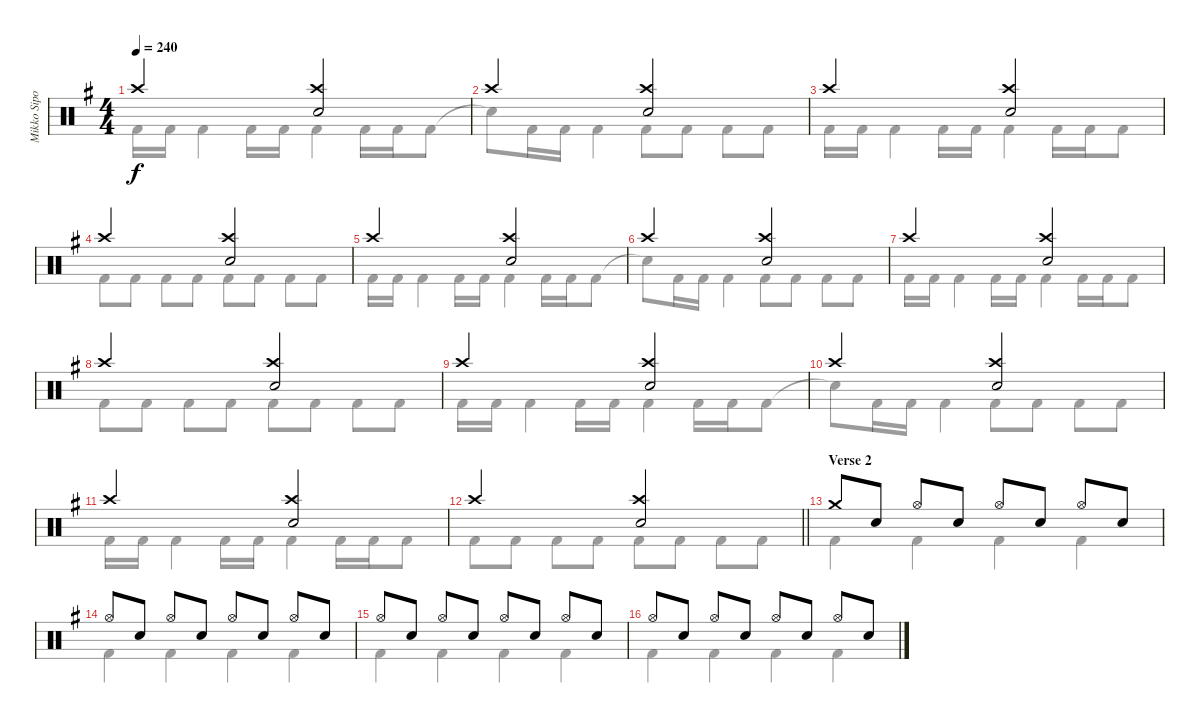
\track ("Mikko Sipola (drums)" "Mikko Sipo") {instrument percussion}
\staff {score}
\articulation defaults
\voice
\ts (4 4)
\tempo 240
\clef neutral
\ks eminor "Crash high (hit)".2{dy f}
("Electric Snare (hit)" "Crash high (hit)").2 |
"Crash high (hit)".2 ("Electric Snare (hit)" "Crash high (hit)").2 |
"Crash high (hit)".2 ("Electric Snare (hit)" "Crash high (hit)").2 |
"Crash high (hit)".2 ("Electric Snare (hit)" "Crash high (hit)").2 |
"Crash high (hit)".2 ("Electric Snare (hit)" "Crash high (hit)").2 |
"Crash high (hit)".2 ("Electric Snare (hit)" "Crash high (hit)").2 |
"Crash high (hit)".2 ("Electric Snare (hit)" "Crash high (hit)").2 |
"Crash high (hit)".2 ("Electric Snare (hit)" "Crash high (hit)").2 |
"Crash high (hit)".2 ("Electric Snare (hit)" "Crash high (hit)").2 |
"Crash high (hit)".2 ("Electric Snare (hit)" "Crash high (hit)").2 |
"Crash high (hit)".2 ("Electric Snare (hit)" "Crash high (hit)").2 |
\barLineRight lightlight "Crash high (hit)".2
("Electric Snare (hit)" "Crash high (hit)").2 |
\section ("" "Verse 2")
"Crash medium (hit)".8 "Electric Snare (hit)".8 "Hi-Hat (open)".8 "Electric Snare (hit)".8 "Hi-Hat (open)".8 "Electric Snare (hit)".8 "Hi-Hat (open)".8 "Electric Snare (hit)".8 |
"Hi-Hat (open)".8 "Electric Snare (hit)".8 "Hi-Hat (open)".8 "Electric Snare (hit)".8 "Hi-Hat (open)".8 "Electric Snare (hit)".8 "Hi-Hat (open)".8 "Electric Snare (hit)".8 |
"Hi-Hat (open)".8 "Electric Snare (hit)".8 "Hi-Hat (open)".8 "Electric Snare (hit)".8 "Hi-Hat (open)".8 "Electric Snare (hit)".8 "Hi-Hat (open)".8 "Electric Snare (hit)".8 |
"Hi-Hat (open)".8 "Electric Snare (hit)".8 "Hi-Hat (open)".8 "Electric Snare (hit)".8 "Hi-Hat (open)".8 "Electric Snare (hit)".8 "Hi-Hat (open)".8 "Electric Snare (hit)".8
\voice
\clef neutral
\ottava regular
\simile none
\ks eminor "Kick (hit) 2".16{dy f} "Kick (hit) 2".16 "Kick (hit) 2".4 "Kick (hit) 2".16 "Kick (hit) 2".16 "Kick (hit) 2".4 "Kick (hit) 2".16 "Kick (hit) 2".16 "Kick (hit) 2".8
|
"Snare (hit)"{t}.8 "Kick (hit) 2".16 "Kick (hit) 2".16 "Kick (hit) 2".4 "Kick (hit) 2".8 "Kick (hit) 2".8 "Kick (hit) 2".8 "Kick (hit) 2".8 |
"Kick (hit) 2".16 "Kick (hit) 2".16 "Kick (hit) 2".4 "Kick (hit) 2".16 "Kick (hit) 2".16 "Kick (hit) 2".4 "Kick (hit) 2".16 "Kick (hit) 2".16 "Kick (hit) 2".8 |
"Kick (hit) 2".8 "Kick (hit) 2".8 "Kick (hit) 2".8 "Kick (hit) 2".8 "Kick (hit) 2".8 "Kick (hit) 2".8 "Kick (hit) 2".8 "Kick (hit) 2".8 |
"Kick (hit) 2".16 "Kick (hit) 2".16 "Kick (hit) 2".4 "Kick (hit) 2".16 "Kick (hit) 2".16 "Kick (hit) 2".4 "Kick (hit) 2".16 "Kick (hit) 2".16 "Kick (hit) 2".8 |
"Snare (hit)"{t}.8 "Kick (hit) 2".16 "Kick (hit) 2".16 "Kick (hit) 2".4 "Kick (hit) 2".8 "Kick (hit) 2".8 "Kick (hit) 2".8 "Kick (hit) 2".8 |
"Kick (hit) 2".16 "Kick (hit) 2".16 "Kick (hit) 2".4 "Kick (hit) 2".16 "Kick (hit) 2".16 "Kick (hit) 2".4 "Kick (hit) 2".16 "Kick (hit) 2".16 "Kick (hit) 2".8 |
"Kick (hit) 2".8 "Kick (hit) 2".8 "Kick (hit) 2".8 "Kick (hit) 2".8 "Kick (hit) 2".8 "Kick (hit) 2".8 "Kick (hit) 2".8 "Kick (hit) 2".8 |
"Kick (hit) 2".16 "Kick (hit) 2".16 "Kick (hit) 2".4 "Kick (hit) 2".16 "Kick (hit) 2".16 "Kick (hit) 2".4 "Kick (hit) 2".16 "Kick (hit) 2".16 "Kick (hit) 2".8 |
"Snare (hit)"{t}.8 "Kick (hit) 2".16 "Kick (hit) 2".16 "Kick (hit) 2".4 "Kick (hit) 2".8 "Kick (hit) 2".8 "Kick (hit) 2".8 "Kick (hit) 2".8 |
"Kick (hit) 2".16 "Kick (hit) 2".16 "Kick (hit) 2".4 "Kick (hit) 2".16 "Kick (hit) 2".16 "Kick (hit) 2".4 "Kick (hit) 2".16 "Kick (hit) 2".16 "Kick (hit) 2".8 |
\barLineRight lightlight "Kick (hit) 2".8 "Kick (hit) 2".8 "Kick (hit) 2".8 "Kick (hit) 2".8 "Kick (hit) 2".8 "Kick (hit) 2".8 "Kick (hit) 2".8 "Kick (hit) 2".8
|
"Kick (hit) 2".4 "Kick (hit) 2".4 "Kick (hit) 2".4 "Kick (hit) 2".4 |
"Kick (hit) 2".4 "Kick (hit) 2".4 "Kick (hit) 2".4 "Kick (hit) 2".4 |
"Kick (hit) 2".4 "Kick (hit) 2".4 "Kick (hit) 2".4 "Kick (hit) 2".4 |
"Kick (hit) 2".4 "Kick (hit) 2".4 "Kick (hit) 2".4 "Kick (hit) 2".4
